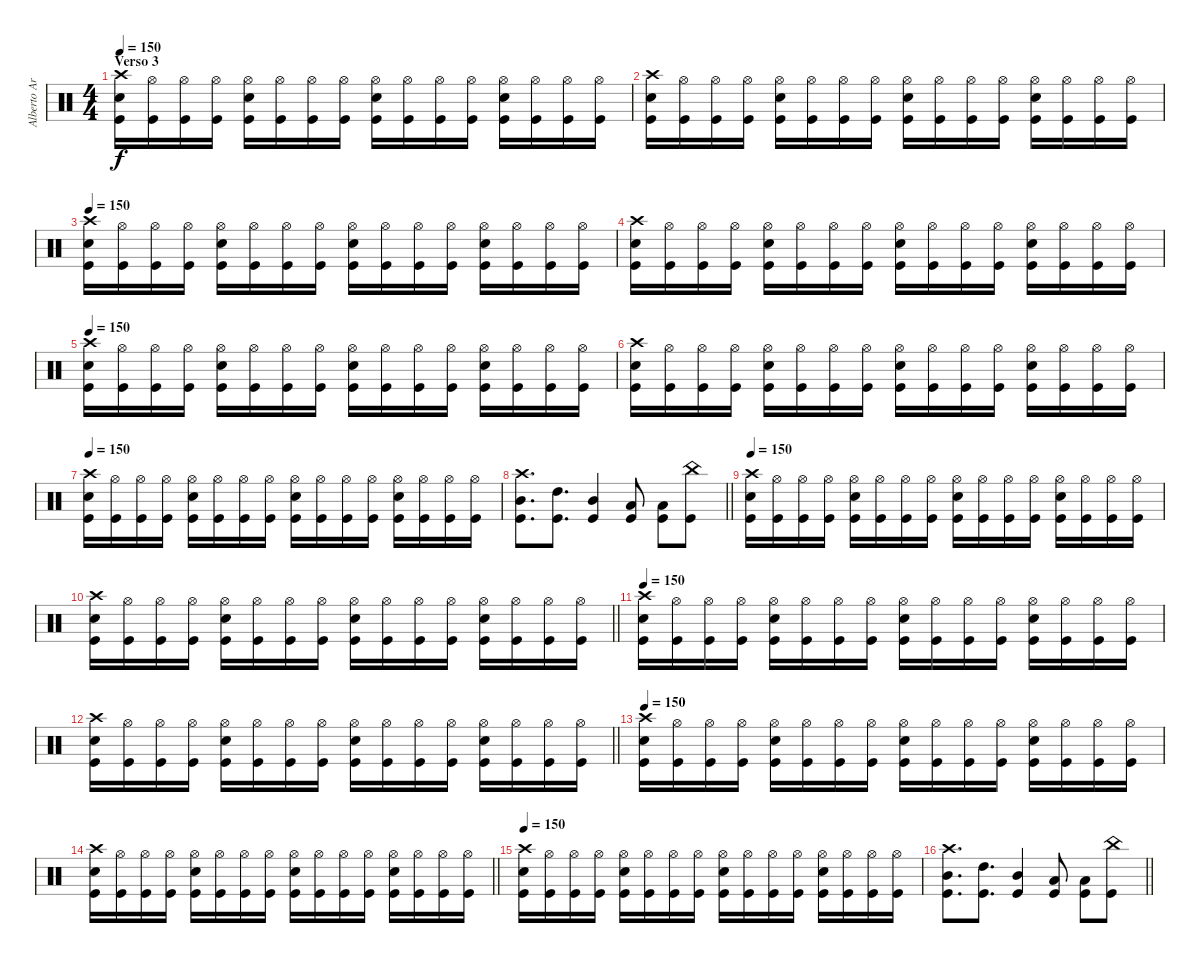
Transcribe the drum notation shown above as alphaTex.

\track ("Alberto Ardines" "Alberto Ar") {instrument percussion}
\staff {score}
\articulation defaults
\ts (4 4)
\section ("" "Verso 3")
\tempo 150
\clef neutral
\ks c
("Crash high (hit)" "Kick (hit)" "Snare (hit) 2").16{dy f} ("Hi-Hat (open)" "Kick (hit)").16 ("Hi-Hat (open)" "Kick (hit)").16 ("Hi-Hat (open)" "Kick (hit)").16 ("Hi-Hat (open)" "Kick (hit)" "Snare (hit) 2").16 ("Hi-Hat (open)" "Kick (hit)").16 ("Hi-Hat (open)" "Kick (hit)").16 ("Hi-Hat (open)" "Kick (hit)").16 ("Hi-Hat (open)" "Kick (hit)" "Snare (hit) 2").16 ("Hi-Hat (open)" "Kick (hit)").16 ("Hi-Hat (open)" "Kick (hit)").16 ("Hi-Hat (open)" "Kick (hit)").16 ("Hi-Hat (open)" "Kick (hit)" "Snare (hit) 2").16 ("Hi-Hat (open)" "Kick (hit)").16 ("Hi-Hat (open)" "Kick (hit)").16 ("Hi-Hat (open)" "Kick (hit)").16 |
("Crash high (hit)" "Kick (hit)" "Snare (hit) 2").16 ("Hi-Hat (open)" "Kick (hit)").16 ("Hi-Hat (open)" "Kick (hit)").16 ("Hi-Hat (open)" "Kick (hit)").16 ("Hi-Hat (open)" "Kick (hit)" "Snare (hit) 2").16 ("Hi-Hat (open)" "Kick (hit)").16 ("Hi-Hat (open)" "Kick (hit)").16 ("Hi-Hat (open)" "Kick (hit)").16 ("Hi-Hat (open)" "Kick (hit)" "Snare (hit) 2").16 ("Hi-Hat (open)" "Kick (hit)").16 ("Hi-Hat (open)" "Kick (hit)").16 ("Hi-Hat (open)" "Kick (hit)").16 ("Hi-Hat (open)" "Kick (hit)" "Snare (hit) 2").16 ("Hi-Hat (open)" "Kick (hit)").16 ("Hi-Hat (open)" "Kick (hit)").16 ("Hi-Hat (open)" "Kick (hit)").16 |
\tempo 150
("Crash high (hit)" "Kick (hit)" "Snare (hit) 2").16 ("Hi-Hat (open)" "Kick (hit)").16 ("Hi-Hat (open)" "Kick (hit)").16 ("Hi-Hat (open)" "Kick (hit)").16 ("Hi-Hat (open)" "Kick (hit)" "Snare (hit) 2").16 ("Hi-Hat (open)" "Kick (hit)").16 ("Hi-Hat (open)" "Kick (hit)").16 ("Hi-Hat (open)" "Kick (hit)").16 ("Hi-Hat (open)" "Kick (hit)" "Snare (hit) 2").16 ("Hi-Hat (open)" "Kick (hit)").16 ("Hi-Hat (open)" "Kick (hit)").16 ("Hi-Hat (open)" "Kick (hit)").16 ("Hi-Hat (open)" "Kick (hit)" "Snare (hit) 2").16 ("Hi-Hat (open)" "Kick (hit)").16 ("Hi-Hat (open)" "Kick (hit)").16 ("Hi-Hat (open)" "Kick (hit)").16 |
("Crash high (hit)" "Kick (hit)" "Snare (hit) 2").16 ("Hi-Hat (open)" "Kick (hit)").16 ("Hi-Hat (open)" "Kick (hit)").16 ("Hi-Hat (open)" "Kick (hit)").16 ("Hi-Hat (open)" "Kick (hit)" "Snare (hit) 2").16 ("Hi-Hat (open)" "Kick (hit)").16 ("Hi-Hat (open)" "Kick (hit)").16 ("Hi-Hat (open)" "Kick (hit)").16 ("Hi-Hat (open)" "Kick (hit)" "Snare (hit) 2").16 ("Hi-Hat (open)" "Kick (hit)").16 ("Hi-Hat (open)" "Kick (hit)").16 ("Hi-Hat (open)" "Kick (hit)").16 ("Hi-Hat (open)" "Kick (hit)" "Snare (hit) 2").16 ("Hi-Hat (open)" "Kick (hit)").16 ("Hi-Hat (open)" "Kick (hit)").16 ("Hi-Hat (open)" "Kick (hit)").16 |
\tempo 150
("Crash high (hit)" "Kick (hit)" "Snare (hit) 2").16 ("Hi-Hat (open)" "Kick (hit)").16 ("Hi-Hat (open)" "Kick (hit)").16 ("Hi-Hat (open)" "Kick (hit)").16 ("Hi-Hat (open)" "Kick (hit)" "Snare (hit) 2").16 ("Hi-Hat (open)" "Kick (hit)").16 ("Hi-Hat (open)" "Kick (hit)").16 ("Hi-Hat (open)" "Kick (hit)").16 ("Hi-Hat (open)" "Kick (hit)" "Snare (hit) 2").16 ("Hi-Hat (open)" "Kick (hit)").16 ("Hi-Hat (open)" "Kick (hit)").16 ("Hi-Hat (open)" "Kick (hit)").16 ("Hi-Hat (open)" "Kick (hit)" "Snare (hit) 2").16 ("Hi-Hat (open)" "Kick (hit)").16 ("Hi-Hat (open)" "Kick (hit)").16 ("Hi-Hat (open)" "Kick (hit)").16 |
("Crash high (hit)" "Kick (hit)" "Snare (hit) 2").16 ("Hi-Hat (open)" "Kick (hit)").16 ("Hi-Hat (open)" "Kick (hit)").16 ("Hi-Hat (open)" "Kick (hit)").16 ("Hi-Hat (open)" "Kick (hit)" "Snare (hit) 2").16 ("Hi-Hat (open)" "Kick (hit)").16 ("Hi-Hat (open)" "Kick (hit)").16 ("Hi-Hat (open)" "Kick (hit)").16 ("Hi-Hat (open)" "Kick (hit)" "Snare (hit) 2").16 ("Hi-Hat (open)" "Kick (hit)").16 ("Hi-Hat (open)" "Kick (hit)").16 ("Hi-Hat (open)" "Kick (hit)").16 ("Hi-Hat (open)" "Kick (hit)" "Snare (hit) 2").16 ("Hi-Hat (open)" "Kick (hit)").16 ("Hi-Hat (open)" "Kick (hit)").16 ("Hi-Hat (open)" "Kick (hit)").16 |
\tempo 150
("Crash high (hit)" "Kick (hit)" "Snare (hit) 2").16 ("Hi-Hat (open)" "Kick (hit)").16 ("Hi-Hat (open)" "Kick (hit)").16 ("Hi-Hat (open)" "Kick (hit)").16 ("Hi-Hat (open)" "Kick (hit)" "Snare (hit) 2").16 ("Hi-Hat (open)" "Kick (hit)").16 ("Hi-Hat (open)" "Kick (hit)").16 ("Hi-Hat (open)" "Kick (hit)").16 ("Hi-Hat (open)" "Kick (hit)" "Snare (hit) 2").16 ("Hi-Hat (open)" "Kick (hit)").16 ("Hi-Hat (open)" "Kick (hit)").16 ("Hi-Hat (open)" "Kick (hit)").16 ("Hi-Hat (open)" "Kick (hit)" "Snare (hit) 2").16 ("Hi-Hat (open)" "Kick (hit)").16 ("Hi-Hat (open)" "Kick (hit)").16 ("Hi-Hat (open)" "Kick (hit)").16 |
\barLineRight lightlight
("Crash high (hit)" "Kick (hit)" "Mid Tom (hit)").8{d} ("Kick (hit)" "High Tom (hit)").8{d} ("Kick (hit)" "Mid Tom (hit)").4 ("Kick (hit)" "Low Tom (hit)").8 ("Kick (hit)" "Low Floor Tom (hit)").8 ("China (hit)" "Kick (hit)").8 |
\tempo 150
("Crash high (hit)" "Kick (hit)" "Snare (hit) 2").16 ("Hi-Hat (open)" "Kick (hit)").16 ("Hi-Hat (open)" "Kick (hit)").16 ("Hi-Hat (open)" "Kick (hit)").16 ("Hi-Hat (open)" "Kick (hit)" "Snare (hit) 2").16 ("Hi-Hat (open)" "Kick (hit)").16 ("Hi-Hat (open)" "Kick (hit)").16 ("Hi-Hat (open)" "Kick (hit)").16 ("Hi-Hat (open)" "Kick (hit)" "Snare (hit) 2").16 ("Hi-Hat (open)" "Kick (hit)").16 ("Hi-Hat (open)" "Kick (hit)").16 ("Hi-Hat (open)" "Kick (hit)").16 ("Hi-Hat (open)" "Kick (hit)" "Snare (hit) 2").16 ("Hi-Hat (open)" "Kick (hit)").16 ("Hi-Hat (open)" "Kick (hit)").16 ("Hi-Hat (open)" "Kick (hit)").16 |
\barLineRight lightlight
("Crash high (hit)" "Kick (hit)" "Snare (hit) 2").16 ("Hi-Hat (open)" "Kick (hit)").16 ("Hi-Hat (open)" "Kick (hit)").16 ("Hi-Hat (open)" "Kick (hit)").16 ("Hi-Hat (open)" "Kick (hit)" "Snare (hit) 2").16 ("Hi-Hat (open)" "Kick (hit)").16 ("Hi-Hat (open)" "Kick (hit)").16 ("Hi-Hat (open)" "Kick (hit)").16 ("Hi-Hat (open)" "Kick (hit)" "Snare (hit) 2").16 ("Hi-Hat (open)" "Kick (hit)").16 ("Hi-Hat (open)" "Kick (hit)").16 ("Hi-Hat (open)" "Kick (hit)").16 ("Hi-Hat (open)" "Kick (hit)" "Snare (hit) 2").16 ("Hi-Hat (open)" "Kick (hit)").16 ("Hi-Hat (open)" "Kick (hit)").16 ("Hi-Hat (open)" "Kick (hit)").16 |
\tempo 150
("Crash high (hit)" "Kick (hit)" "Snare (hit) 2").16 ("Hi-Hat (open)" "Kick (hit)").16 ("Hi-Hat (open)" "Kick (hit)").16 ("Hi-Hat (open)" "Kick (hit)").16 ("Hi-Hat (open)" "Kick (hit)" "Snare (hit) 2").16 ("Hi-Hat (open)" "Kick (hit)").16 ("Hi-Hat (open)" "Kick (hit)").16 ("Hi-Hat (open)" "Kick (hit)").16 ("Hi-Hat (open)" "Kick (hit)" "Snare (hit) 2").16 ("Hi-Hat (open)" "Kick (hit)").16 ("Hi-Hat (open)" "Kick (hit)").16 ("Hi-Hat (open)" "Kick (hit)").16 ("Hi-Hat (open)" "Kick (hit)" "Snare (hit) 2").16 ("Hi-Hat (open)" "Kick (hit)").16 ("Hi-Hat (open)" "Kick (hit)").16 ("Hi-Hat (open)" "Kick (hit)").16 |
\barLineRight lightlight
("Crash high (hit)" "Kick (hit)" "Snare (hit) 2").16 ("Hi-Hat (open)" "Kick (hit)").16 ("Hi-Hat (open)" "Kick (hit)").16 ("Hi-Hat (open)" "Kick (hit)").16 ("Hi-Hat (open)" "Kick (hit)" "Snare (hit) 2").16 ("Hi-Hat (open)" "Kick (hit)").16 ("Hi-Hat (open)" "Kick (hit)").16 ("Hi-Hat (open)" "Kick (hit)").16 ("Hi-Hat (open)" "Kick (hit)" "Snare (hit) 2").16 ("Hi-Hat (open)" "Kick (hit)").16 ("Hi-Hat (open)" "Kick (hit)").16 ("Hi-Hat (open)" "Kick (hit)").16 ("Hi-Hat (open)" "Kick (hit)" "Snare (hit) 2").16 ("Hi-Hat (open)" "Kick (hit)").16 ("Hi-Hat (open)" "Kick (hit)").16 ("Hi-Hat (open)" "Kick (hit)").16 |
\tempo 150
("Crash high (hit)" "Kick (hit)" "Snare (hit) 2").16 ("Hi-Hat (open)" "Kick (hit)").16 ("Hi-Hat (open)" "Kick (hit)").16 ("Hi-Hat (open)" "Kick (hit)").16 ("Hi-Hat (open)" "Kick (hit)" "Snare (hit) 2").16 ("Hi-Hat (open)" "Kick (hit)").16 ("Hi-Hat (open)" "Kick (hit)").16 ("Hi-Hat (open)" "Kick (hit)").16 ("Hi-Hat (open)" "Kick (hit)" "Snare (hit) 2").16 ("Hi-Hat (open)" "Kick (hit)").16 ("Hi-Hat (open)" "Kick (hit)").16 ("Hi-Hat (open)" "Kick (hit)").16 ("Hi-Hat (open)" "Kick (hit)" "Snare (hit) 2").16 ("Hi-Hat (open)" "Kick (hit)").16 ("Hi-Hat (open)" "Kick (hit)").16 ("Hi-Hat (open)" "Kick (hit)").16 |
\barLineRight lightlight
("Crash high (hit)" "Kick (hit)" "Snare (hit) 2").16 ("Hi-Hat (open)" "Kick (hit)").16 ("Hi-Hat (open)" "Kick (hit)").16 ("Hi-Hat (open)" "Kick (hit)").16 ("Hi-Hat (open)" "Kick (hit)" "Snare (hit) 2").16 ("Hi-Hat (open)" "Kick (hit)").16 ("Hi-Hat (open)" "Kick (hit)").16 ("Hi-Hat (open)" "Kick (hit)").16 ("Hi-Hat (open)" "Kick (hit)" "Snare (hit) 2").16 ("Hi-Hat (open)" "Kick (hit)").16 ("Hi-Hat (open)" "Kick (hit)").16 ("Hi-Hat (open)" "Kick (hit)").16 ("Hi-Hat (open)" "Kick (hit)" "Snare (hit) 2").16 ("Hi-Hat (open)" "Kick (hit)").16 ("Hi-Hat (open)" "Kick (hit)").16 ("Hi-Hat (open)" "Kick (hit)").16 |
\tempo 150
("Crash high (hit)" "Kick (hit)" "Snare (hit) 2").16 ("Hi-Hat (open)" "Kick (hit)").16 ("Hi-Hat (open)" "Kick (hit)").16 ("Hi-Hat (open)" "Kick (hit)").16 ("Hi-Hat (open)" "Kick (hit)" "Snare (hit) 2").16 ("Hi-Hat (open)" "Kick (hit)").16 ("Hi-Hat (open)" "Kick (hit)").16 ("Hi-Hat (open)" "Kick (hit)").16 ("Hi-Hat (open)" "Kick (hit)" "Snare (hit) 2").16 ("Hi-Hat (open)" "Kick (hit)").16 ("Hi-Hat (open)" "Kick (hit)").16 ("Hi-Hat (open)" "Kick (hit)").16 ("Hi-Hat (open)" "Kick (hit)" "Snare (hit) 2").16 ("Hi-Hat (open)" "Kick (hit)").16 ("Hi-Hat (open)" "Kick (hit)").16 ("Hi-Hat (open)" "Kick (hit)").16 |
\barLineRight lightlight
("Crash high (hit)" "Kick (hit)" "Mid Tom (hit)").8{d} ("Kick (hit)" "High Tom (hit)").8{d} ("Kick (hit)" "Mid Tom (hit)").4 ("Kick (hit)" "Low Tom (hit)").8 ("Kick (hit)" "Low Floor Tom (hit)").8 ("China (hit)" "Kick (hit)").8
